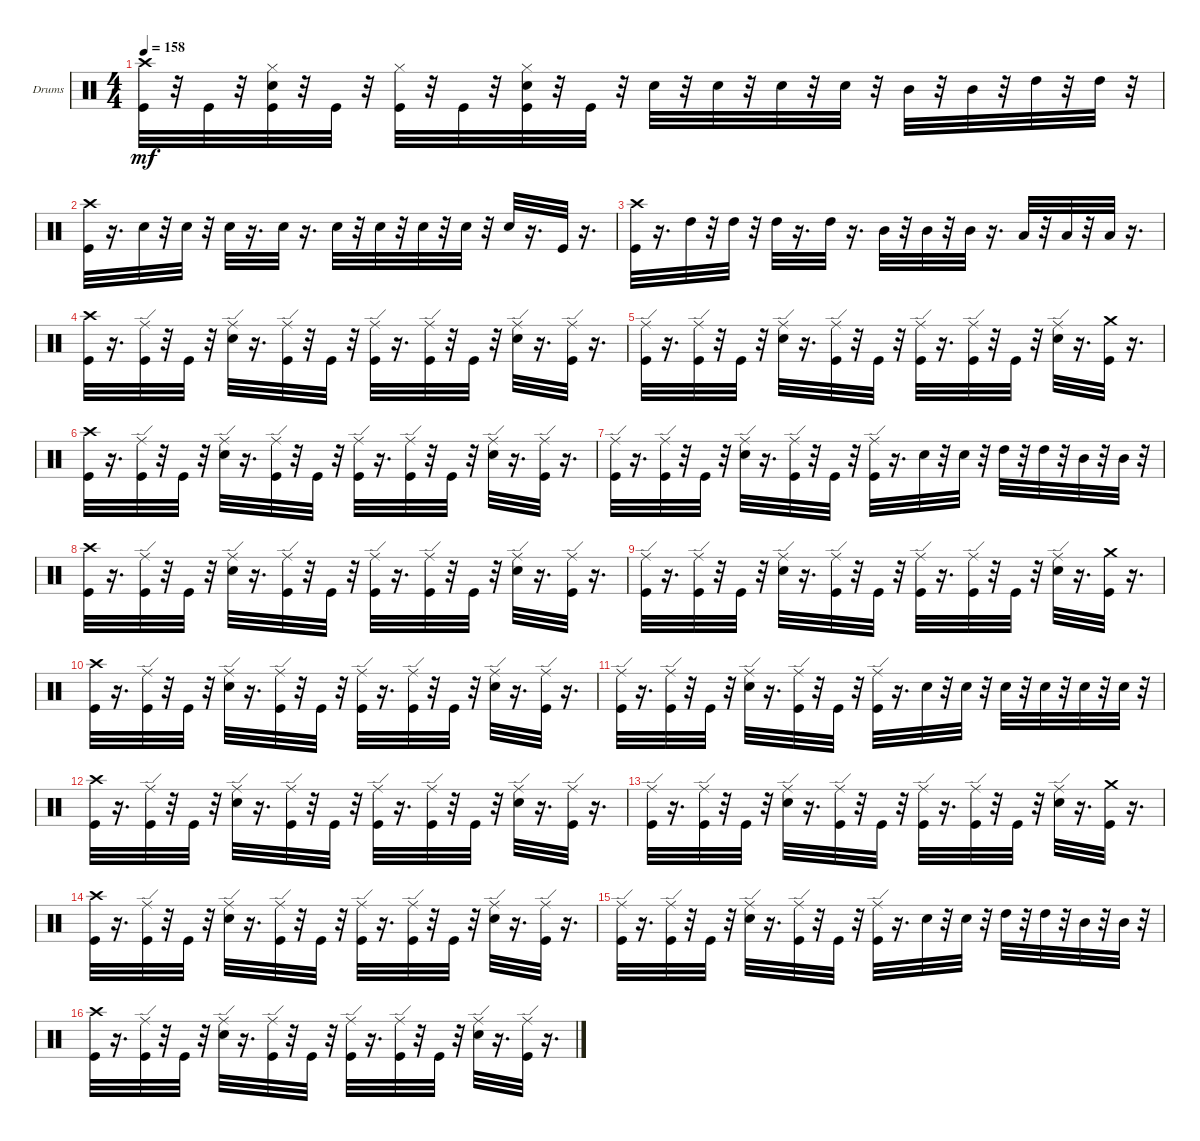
\bracketExtendMode groupsimilarinstruments
\firstSystemTrackNameOrientation horizontal
\otherSystemsTrackNameOrientation horizontal
\track ("" "Drums") {instrument percussion}
\staff {score}
\articulation defaults
\ts (4 4)
\tempo 158
\clef neutral
\ks c
("Crash high (hit)" "Kick (hit)").32{dy mf} r.32 "Kick (hit)".32 r.32 ("Kick (hit)" "Snare (hit) 2" "Hi-Hat (closed)").32 r.32 "Kick (hit)".32 r.32 ("Kick (hit)" "Hi-Hat (closed)").32 r.32 "Kick (hit)".32 r.32 ("Hi-Hat (closed)" "Kick (hit)" "Snare (hit) 2").32 r.32 "Kick (hit)".32 r.32 "Snare (hit) 2".32 r.32 "Snare (hit) 2".32 r.32 "Snare (hit) 2".32 r.32 "Snare (hit) 2".32 r.32 "Mid Tom (hit)".32 r.32 "Mid Tom (hit)".32 r.32 "High Tom (hit)".32 r.32 "High Tom (hit)".32 r.32 |
("Crash high (hit)" "Kick (hit)").32 r.16{d} "Snare (hit) 2".32 r.32 "Snare (hit) 2".32 r.32 "Snare (hit) 2".32 r.16{d} "Snare (hit) 2".32 r.16{d} "Snare (hit) 2".32 r.32 "Snare (hit) 2".32 r.32 "Snare (hit) 2".32 r.32 "Snare (hit) 2".32 r.32 "Snare (hit) 2".32 r.16{d} "Kick (hit)".32 r.16{d} |
("Crash high (hit)" "Kick (hit)").32 r.16{d} "High Tom (hit)".32 r.32 "High Tom (hit)".32 r.32 "High Tom (hit)".32 r.16{d} "High Tom (hit)".32 r.16{d} "Mid Tom (hit)".32 r.32 "Mid Tom (hit)".32 r.32 "Mid Tom (hit)".32 r.16{d} "Low Tom (hit)".32 r.32 "Low Tom (hit)".32 r.32 "Low Tom (hit)".32 r.16{d} |
("Crash high (hit)" "Kick (hit)").32 r.16{d} ("Ride (edge)" "Kick (hit)").32 r.32 "Kick (hit)".32 r.32 ("Ride (edge)" "Snare (hit) 2").32 r.16{d} ("Ride (edge)" "Kick (hit)").32 r.32 "Kick (hit)".32 r.32 ("Ride (edge)" "Kick (hit)").32 r.16{d} ("Ride (edge)" "Kick (hit)").32 r.32 "Kick (hit)".32 r.32 ("Ride (edge)" "Snare (hit) 2").32 r.16{d} ("Ride (edge)" "Kick (hit)").32 r.16{d} |
("Ride (edge)" "Kick (hit)").32 r.16{d} ("Ride (edge)" "Kick (hit)").32 r.32 "Kick (hit)".32 r.32 ("Ride (edge)" "Snare (hit) 2").32 r.16{d} ("Ride (edge)" "Kick (hit)").32 r.32 "Kick (hit)".32 r.32 ("Ride (edge)" "Kick (hit)").32 r.16{d} ("Ride (edge)" "Kick (hit)").32 r.32 "Kick (hit)".32 r.32 ("Ride (edge)" "Snare (hit) 2").32 r.16{d} ("Crash medium (hit)" "Kick (hit)").32 r.16{d} |
("Crash high (hit)" "Kick (hit)").32 r.16{d} ("Ride (edge)" "Kick (hit)").32 r.32 "Kick (hit)".32 r.32 ("Ride (edge)" "Snare (hit) 2").32 r.16{d} ("Ride (edge)" "Kick (hit)").32 r.32 "Kick (hit)".32 r.32 ("Ride (edge)" "Kick (hit)").32 r.16{d} ("Ride (edge)" "Kick (hit)").32 r.32 "Kick (hit)".32 r.32 ("Ride (edge)" "Snare (hit) 2").32 r.16{d} ("Ride (edge)" "Kick (hit)").32 r.16{d} |
("Ride (edge)" "Kick (hit)").32 r.16{d} ("Ride (edge)" "Kick (hit)").32 r.32 "Kick (hit)".32 r.32 ("Ride (edge)" "Snare (hit) 2").32 r.16{d} ("Ride (edge)" "Kick (hit)").32 r.32 "Kick (hit)".32 r.32 ("Ride (edge)" "Kick (hit)").32 r.16{d} "Snare (hit) 2".32 r.32 "Snare (hit) 2".32 r.32 "High Tom (hit)".32 r.32 "High Tom (hit)".32 r.32 "Mid Tom (hit)".32 r.32 "Mid Tom (hit)".32 r.32 |
("Crash high (hit)" "Kick (hit)").32 r.16{d} ("Ride (edge)" "Kick (hit)").32 r.32 "Kick (hit)".32 r.32 ("Ride (edge)" "Snare (hit) 2").32 r.16{d} ("Ride (edge)" "Kick (hit)").32 r.32 "Kick (hit)".32 r.32 ("Ride (edge)" "Kick (hit)").32 r.16{d} ("Ride (edge)" "Kick (hit)").32 r.32 "Kick (hit)".32 r.32 ("Ride (edge)" "Snare (hit) 2").32 r.16{d} ("Ride (edge)" "Kick (hit)").32 r.16{d} |
("Ride (edge)" "Kick (hit)").32 r.16{d} ("Ride (edge)" "Kick (hit)").32 r.32 "Kick (hit)".32 r.32 ("Ride (edge)" "Snare (hit) 2").32 r.16{d} ("Ride (edge)" "Kick (hit)").32 r.32 "Kick (hit)".32 r.32 ("Ride (edge)" "Kick (hit)").32 r.16{d} ("Ride (edge)" "Kick (hit)").32 r.32 "Kick (hit)".32 r.32 ("Ride (edge)" "Snare (hit) 2").32 r.16{d} ("Crash medium (hit)" "Kick (hit)").32 r.16{d} |
("Crash high (hit)" "Kick (hit)").32 r.16{d} ("Ride (edge)" "Kick (hit)").32 r.32 "Kick (hit)".32 r.32 ("Ride (edge)" "Snare (hit) 2").32 r.16{d} ("Ride (edge)" "Kick (hit)").32 r.32 "Kick (hit)".32 r.32 ("Ride (edge)" "Kick (hit)").32 r.16{d} ("Ride (edge)" "Kick (hit)").32 r.32 "Kick (hit)".32 r.32 ("Ride (edge)" "Snare (hit) 2").32 r.16{d} ("Ride (edge)" "Kick (hit)").32 r.16{d} |
("Ride (edge)" "Kick (hit)").32 r.16{d} ("Ride (edge)" "Kick (hit)").32 r.32 "Kick (hit)".32 r.32 ("Ride (edge)" "Snare (hit) 2").32 r.16{d} ("Ride (edge)" "Kick (hit)").32 r.32 "Kick (hit)".32 r.32 ("Ride (edge)" "Kick (hit)").32 r.16{d} "Snare (hit) 2".32 r.32 "Snare (hit) 2".32 r.32 "Snare (hit) 2".32 r.32 "Snare (hit) 2".32 r.32 "Snare (hit) 2".32 r.32 "Snare (hit) 2".32 r.32 |
("Crash high (hit)" "Kick (hit)").32 r.16{d} ("Ride (edge)" "Kick (hit)").32 r.32 "Kick (hit)".32 r.32 ("Ride (edge)" "Snare (hit) 2").32 r.16{d} ("Ride (edge)" "Kick (hit)").32 r.32 "Kick (hit)".32 r.32 ("Ride (edge)" "Kick (hit)").32 r.16{d} ("Ride (edge)" "Kick (hit)").32 r.32 "Kick (hit)".32 r.32 ("Ride (edge)" "Snare (hit) 2").32 r.16{d} ("Ride (edge)" "Kick (hit)").32 r.16{d} |
("Ride (edge)" "Kick (hit)").32 r.16{d} ("Ride (edge)" "Kick (hit)").32 r.32 "Kick (hit)".32 r.32 ("Ride (edge)" "Snare (hit) 2").32 r.16{d} ("Ride (edge)" "Kick (hit)").32 r.32 "Kick (hit)".32 r.32 ("Ride (edge)" "Kick (hit)").32 r.16{d} ("Ride (edge)" "Kick (hit)").32 r.32 "Kick (hit)".32 r.32 ("Ride (edge)" "Snare (hit) 2").32 r.16{d} ("Crash medium (hit)" "Kick (hit)").32 r.16{d} |
("Crash high (hit)" "Kick (hit)").32 r.16{d} ("Ride (edge)" "Kick (hit)").32 r.32 "Kick (hit)".32 r.32 ("Ride (edge)" "Snare (hit) 2").32 r.16{d} ("Ride (edge)" "Kick (hit)").32 r.32 "Kick (hit)".32 r.32 ("Ride (edge)" "Kick (hit)").32 r.16{d} ("Ride (edge)" "Kick (hit)").32 r.32 "Kick (hit)".32 r.32 ("Ride (edge)" "Snare (hit) 2").32 r.16{d} ("Ride (edge)" "Kick (hit)").32 r.16{d} |
("Ride (edge)" "Kick (hit)").32 r.16{d} ("Ride (edge)" "Kick (hit)").32 r.32 "Kick (hit)".32 r.32 ("Ride (edge)" "Snare (hit) 2").32 r.16{d} ("Ride (edge)" "Kick (hit)").32 r.32 "Kick (hit)".32 r.32 ("Ride (edge)" "Kick (hit)").32 r.16{d} "Snare (hit) 2".32 r.32 "Snare (hit) 2".32 r.32 "High Tom (hit)".32 r.32 "High Tom (hit)".32 r.32 "Mid Tom (hit)".32 r.32 "Mid Tom (hit)".32 r.32 |
("Crash high (hit)" "Kick (hit)").32 r.16{d} ("Ride (edge)" "Kick (hit)").32 r.32 "Kick (hit)".32 r.32 ("Ride (edge)" "Snare (hit) 2").32 r.16{d} ("Ride (edge)" "Kick (hit)").32 r.32 "Kick (hit)".32 r.32 ("Ride (edge)" "Kick (hit)").32 r.16{d} ("Ride (edge)" "Kick (hit)").32 r.32 "Kick (hit)".32 r.32 ("Ride (edge)" "Snare (hit) 2").32 r.16{d} ("Ride (edge)" "Kick (hit)").32 r.16{d}
